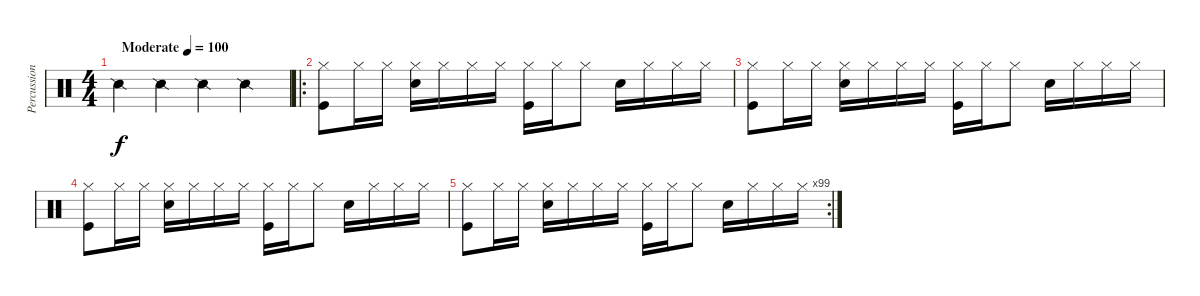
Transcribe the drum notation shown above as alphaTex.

\track ("Percussions" "Percussion") {instrument percussion}
\staff {score}
\articulation defaults
\ts (4 4)
\tempo (100 "Moderate")
\clef neutral
\ks c "Snare (side stick) 2".4{dy f} "Snare (side stick) 2".4 "Snare (side stick) 2".4 "Snare (side stick) 2".4
|
\ro
("Hi-Hat (closed)" "Kick (hit)").8 "Hi-Hat (closed)".16 "Hi-Hat (closed)".16 ("Hi-Hat (closed)" "Snare (hit) 2").16 "Hi-Hat (closed)".16 "Hi-Hat (closed)".16 "Hi-Hat (closed)".16 ("Hi-Hat (closed)" "Kick (hit)").16 "Hi-Hat (closed)".16 "Hi-Hat (closed)".8 "Snare (hit) 2".16 "Hi-Hat (closed)".16 "Hi-Hat (closed)".16 "Hi-Hat (closed)".16 |
("Hi-Hat (closed)" "Kick (hit)").8 "Hi-Hat (closed)".16 "Hi-Hat (closed)".16 ("Hi-Hat (closed)" "Snare (hit) 2").16 "Hi-Hat (closed)".16 "Hi-Hat (closed)".16 "Hi-Hat (closed)".16 ("Hi-Hat (closed)" "Kick (hit)").16 "Hi-Hat (closed)".16 "Hi-Hat (closed)".8 "Snare (hit) 2".16 "Hi-Hat (closed)".16 "Hi-Hat (closed)".16 "Hi-Hat (closed)".16 |
("Hi-Hat (closed)" "Kick (hit)").8 "Hi-Hat (closed)".16 "Hi-Hat (closed)".16 ("Hi-Hat (closed)" "Snare (hit) 2").16 "Hi-Hat (closed)".16 "Hi-Hat (closed)".16 "Hi-Hat (closed)".16 ("Hi-Hat (closed)" "Kick (hit)").16 "Hi-Hat (closed)".16 "Hi-Hat (closed)".8 "Snare (hit) 2".16 "Hi-Hat (closed)".16 "Hi-Hat (closed)".16 "Hi-Hat (closed)".16 |
\rc 99
("Hi-Hat (closed)" "Kick (hit)").8 "Hi-Hat (closed)".16 "Hi-Hat (closed)".16 ("Hi-Hat (closed)" "Snare (hit) 2").16 "Hi-Hat (closed)".16 "Hi-Hat (closed)".16 "Hi-Hat (closed)".16 ("Hi-Hat (closed)" "Kick (hit)").16 "Hi-Hat (closed)".16 "Hi-Hat (closed)".8 "Snare (hit) 2".16 "Hi-Hat (closed)".16 "Hi-Hat (closed)".16 "Hi-Hat (closed)".16
